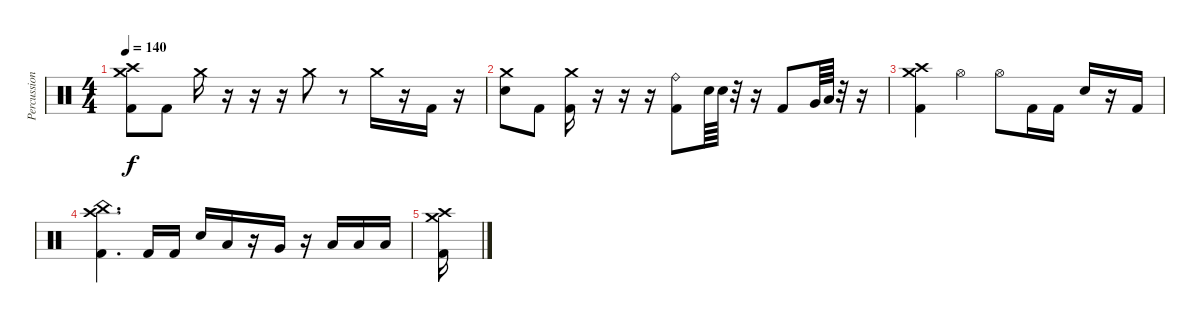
\track ("Percussioni" "Percussion") {mute instrument percussion}
\staff {score}
\articulation defaults
\ts (4 4)
\tempo 140
\clef neutral
\ks c
("Kick (hit) 2" "Crash high (hit)" "Crash medium (hit)").8{dy f} "Kick (hit) 2".8 "Crash medium (hit)".16 r.16 r.16 r.16 "Crash medium (hit)".8 r.8 "Crash medium (hit)".16 r.16 "Kick (hit) 2".16 r.16 |
("Snare (hit) 2" "Crash medium (hit)").8 "Kick (hit) 2".8 ("Kick (hit) 2" "Crash medium (hit)").16 r.16 r.16 r.16 ("Kick (hit) 2" "Ride (bell)").8 "Snare (hit) 2".64 "Snare (hit) 2".64 r.32 r.16 "Kick (hit) 2".8 "Very Low Tom (hit)".64 "Low Floor Tom (hit)".64 r.32 r.16 |
("Kick (hit) 2" "Crash high (hit)" "Crash medium (hit)").4 "Hi-Hat (open)".4 "Hi-Hat (open)".8 "Kick (hit) 2".16 "Kick (hit) 2".16 "Snare (hit) 2".16 r.16 "Kick (hit) 2".16 |
("Kick (hit) 2" "Crash high (hit)" "China (hit)").4{d} "Kick (hit) 2".16 "Kick (hit) 2".16 "Snare (hit) 2".16 "Low Tom (hit)".16 r.16 "Very Low Tom (hit)".16 r.16 "Low Floor Tom (hit)".16 "Low Floor Tom (hit)".16 "Low Floor Tom (hit)".16 |
("Kick (hit) 2" "Crash high (hit)" "Crash medium (hit)").16
